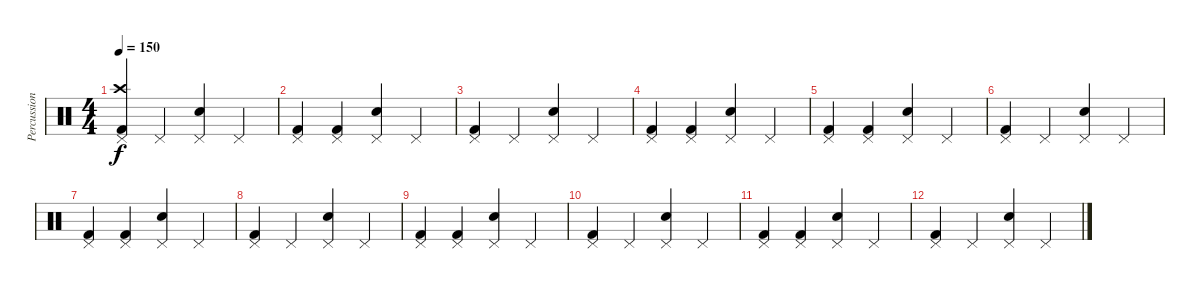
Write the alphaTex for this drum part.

\track ("Percussion" "Percussion") {instrument percussion}
\staff {score}
\articulation defaults
\ts (4 4)
\tempo 150
\clef neutral
\ks c
("Pedal Hi-Hat (hit)" "Crash high (hit)" "Kick (hit) 2").4{dy f} "Pedal Hi-Hat (hit)".4 ("Pedal Hi-Hat (hit)" "Snare (hit) 2").4 "Pedal Hi-Hat (hit)".4 |
("Pedal Hi-Hat (hit)" "Kick (hit) 2").4 ("Pedal Hi-Hat (hit)" "Kick (hit) 2").4 ("Pedal Hi-Hat (hit)" "Snare (hit) 2").4 "Pedal Hi-Hat (hit)".4 |
("Pedal Hi-Hat (hit)" "Kick (hit) 2").4 "Pedal Hi-Hat (hit)".4 ("Pedal Hi-Hat (hit)" "Snare (hit) 2").4 "Pedal Hi-Hat (hit)".4 |
("Pedal Hi-Hat (hit)" "Kick (hit) 2").4 ("Pedal Hi-Hat (hit)" "Kick (hit) 2").4 ("Pedal Hi-Hat (hit)" "Snare (hit) 2").4 "Pedal Hi-Hat (hit)".4 |
("Pedal Hi-Hat (hit)" "Kick (hit) 2").4 ("Pedal Hi-Hat (hit)" "Kick (hit) 2").4 ("Pedal Hi-Hat (hit)" "Snare (hit) 2").4 "Pedal Hi-Hat (hit)".4 |
("Pedal Hi-Hat (hit)" "Kick (hit) 2").4 "Pedal Hi-Hat (hit)".4 ("Pedal Hi-Hat (hit)" "Snare (hit) 2").4 "Pedal Hi-Hat (hit)".4 |
("Pedal Hi-Hat (hit)" "Kick (hit) 2").4 ("Pedal Hi-Hat (hit)" "Kick (hit) 2").4 ("Pedal Hi-Hat (hit)" "Snare (hit) 2").4 "Pedal Hi-Hat (hit)".4 |
("Pedal Hi-Hat (hit)" "Kick (hit) 2").4 "Pedal Hi-Hat (hit)".4 ("Pedal Hi-Hat (hit)" "Snare (hit) 2").4 "Pedal Hi-Hat (hit)".4 |
("Pedal Hi-Hat (hit)" "Kick (hit) 2").4 ("Pedal Hi-Hat (hit)" "Kick (hit) 2").4 ("Pedal Hi-Hat (hit)" "Snare (hit) 2").4 "Pedal Hi-Hat (hit)".4 |
("Pedal Hi-Hat (hit)" "Kick (hit) 2").4 "Pedal Hi-Hat (hit)".4 ("Pedal Hi-Hat (hit)" "Snare (hit) 2").4 "Pedal Hi-Hat (hit)".4 |
("Pedal Hi-Hat (hit)" "Kick (hit) 2").4 ("Pedal Hi-Hat (hit)" "Kick (hit) 2").4 ("Pedal Hi-Hat (hit)" "Snare (hit) 2").4 "Pedal Hi-Hat (hit)".4 |
("Pedal Hi-Hat (hit)" "Kick (hit) 2").4 "Pedal Hi-Hat (hit)".4 ("Pedal Hi-Hat (hit)" "Snare (hit) 2").4 "Pedal Hi-Hat (hit)".4
